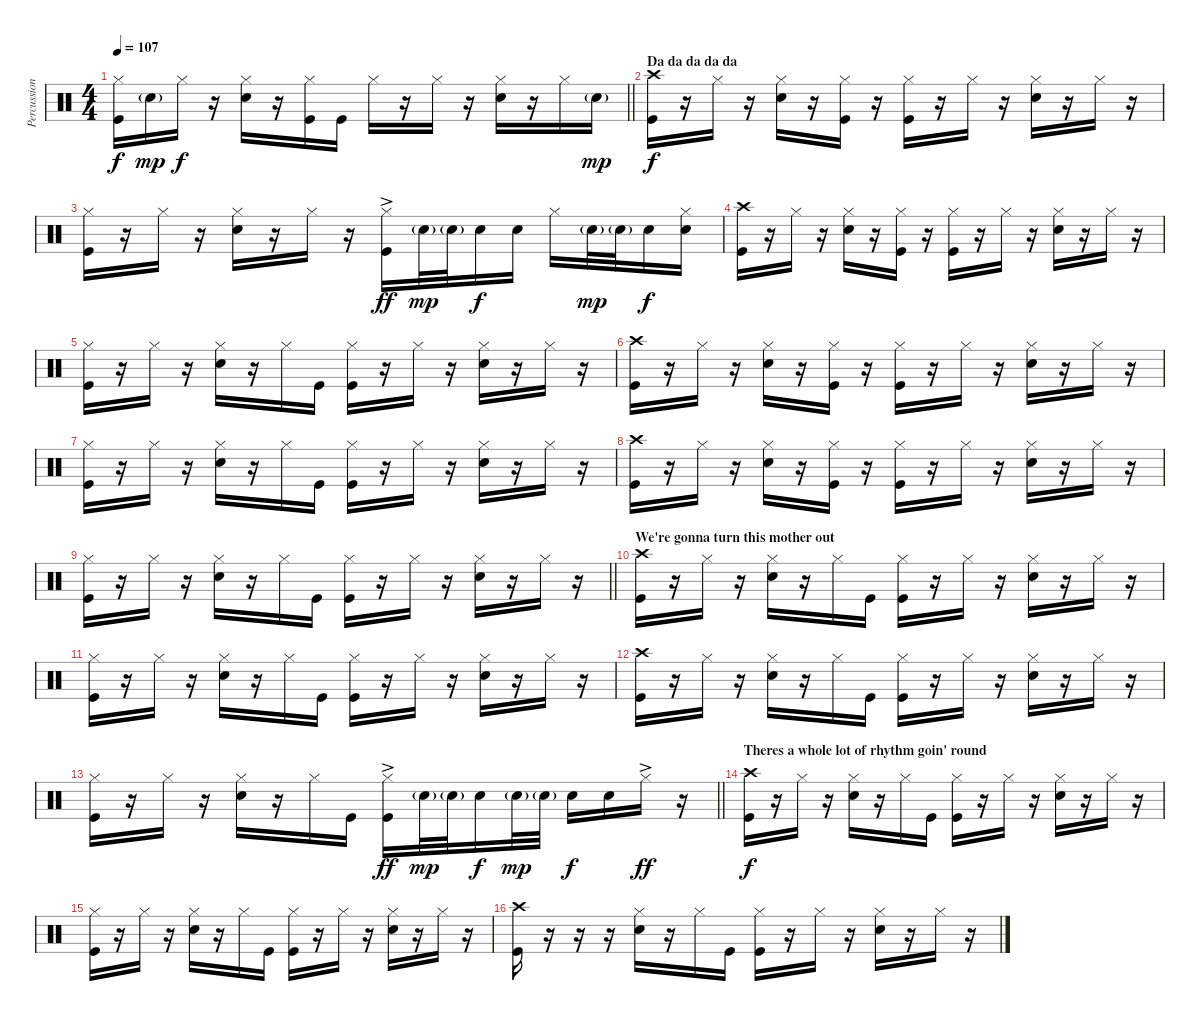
\track ("Percussion" "Percussion") {instrument percussion}
\staff {score}
\articulation defaults
\ts (4 4)
\tempo 107
\clef neutral
\barLineRight lightlight
\ks c
("Hi-Hat (closed)" "Kick (hit)").16{dy f} "Snare (hit) 2"{g}.16{dy mp} "Hi-Hat (closed)".16{dy f} r.16 ("Hi-Hat (closed)" "Snare (hit) 2").16 r.16 ("Hi-Hat (closed)" "Kick (hit)").16 "Kick (hit)".16 "Hi-Hat (closed)".16 r.16 "Hi-Hat (closed)".16 r.16 ("Hi-Hat (closed)" "Snare (hit) 2").16 r.16 "Hi-Hat (closed)".16 "Snare (hit) 2"{g}.16{dy mp} |
\section ("" "Da da da da da")
("Crash high (hit)" "Kick (hit)").16{dy f} r.16 "Hi-Hat (closed)".16 r.16 ("Hi-Hat (closed)" "Snare (hit) 2").16 r.16 ("Hi-Hat (closed)" "Kick (hit)").16 r.16 ("Hi-Hat (closed)" "Kick (hit)").16 r.16 "Hi-Hat (closed)".16 r.16 ("Hi-Hat (closed)" "Snare (hit) 2").16 r.16 "Hi-Hat (closed)".16 r.16 |
("Hi-Hat (closed)" "Kick (hit)").16 r.16 "Hi-Hat (closed)".16 r.16 ("Hi-Hat (closed)" "Snare (hit) 2").16 r.16 "Hi-Hat (closed)".16 r.16 ("Hi-Hat (closed)" "Kick (hit)"{ac}).16{dy ff} "Snare (hit) 2"{g}.32{dy mp} "Snare (hit) 2"{g}.32 "Snare (hit) 2".16{dy f} "Snare (hit) 2".16 "Hi-Hat (closed)".16 "Snare (hit) 2"{g}.32{dy mp} "Snare (hit) 2"{g}.32 "Snare (hit) 2".16{dy f} ("Hi-Hat (closed)" "Snare (hit) 2").16 |
("Crash high (hit)" "Kick (hit)").16 r.16 "Hi-Hat (closed)".16 r.16 ("Hi-Hat (closed)" "Snare (hit) 2").16 r.16 ("Hi-Hat (closed)" "Kick (hit)").16 r.16 ("Hi-Hat (closed)" "Kick (hit)").16 r.16 "Hi-Hat (closed)".16 r.16 ("Hi-Hat (closed)" "Snare (hit) 2").16 r.16 "Hi-Hat (closed)".16 r.16 |
("Hi-Hat (closed)" "Kick (hit)").16 r.16 "Hi-Hat (closed)".16 r.16 ("Hi-Hat (closed)" "Snare (hit) 2").16 r.16 "Hi-Hat (closed)".16 "Kick (hit)".16 ("Hi-Hat (closed)" "Kick (hit)").16 r.16 "Hi-Hat (closed)".16 r.16 ("Hi-Hat (closed)" "Snare (hit) 2").16 r.16 "Hi-Hat (closed)".16 r.16 |
("Crash high (hit)" "Kick (hit)").16 r.16 "Hi-Hat (closed)".16 r.16 ("Hi-Hat (closed)" "Snare (hit) 2").16 r.16 ("Hi-Hat (closed)" "Kick (hit)").16 r.16 ("Hi-Hat (closed)" "Kick (hit)").16 r.16 "Hi-Hat (closed)".16 r.16 ("Hi-Hat (closed)" "Snare (hit) 2").16 r.16 "Hi-Hat (closed)".16 r.16 |
("Hi-Hat (closed)" "Kick (hit)").16 r.16 "Hi-Hat (closed)".16 r.16 ("Hi-Hat (closed)" "Snare (hit) 2").16 r.16 "Hi-Hat (closed)".16 "Kick (hit)".16 ("Hi-Hat (closed)" "Kick (hit)").16 r.16 "Hi-Hat (closed)".16 r.16 ("Hi-Hat (closed)" "Snare (hit) 2").16 r.16 "Hi-Hat (closed)".16 r.16 |
("Crash high (hit)" "Kick (hit)").16 r.16 "Hi-Hat (closed)".16 r.16 ("Hi-Hat (closed)" "Snare (hit) 2").16 r.16 ("Hi-Hat (closed)" "Kick (hit)").16 r.16 ("Hi-Hat (closed)" "Kick (hit)").16 r.16 "Hi-Hat (closed)".16 r.16 ("Hi-Hat (closed)" "Snare (hit) 2").16 r.16 "Hi-Hat (closed)".16 r.16 |
\barLineRight lightlight
("Hi-Hat (closed)" "Kick (hit)").16 r.16 "Hi-Hat (closed)".16 r.16 ("Hi-Hat (closed)" "Snare (hit) 2").16 r.16 "Hi-Hat (closed)".16 "Kick (hit)".16 ("Hi-Hat (closed)" "Kick (hit)").16 r.16 "Hi-Hat (closed)".16 r.16 ("Hi-Hat (closed)" "Snare (hit) 2").16 r.16 "Hi-Hat (closed)".16 r.16 |
\section ("" "We're gonna turn this mother out")
("Crash high (hit)" "Kick (hit)").16 r.16 "Hi-Hat (closed)".16 r.16 ("Hi-Hat (closed)" "Snare (hit) 2").16 r.16 "Hi-Hat (closed)".16 "Kick (hit)".16 ("Hi-Hat (closed)" "Kick (hit)").16 r.16 "Hi-Hat (closed)".16 r.16 ("Hi-Hat (closed)" "Snare (hit) 2").16 r.16 "Hi-Hat (closed)".16 r.16 |
("Hi-Hat (closed)" "Kick (hit)").16 r.16 "Hi-Hat (closed)".16 r.16 ("Hi-Hat (closed)" "Snare (hit) 2").16 r.16 "Hi-Hat (closed)".16 "Kick (hit)".16 ("Hi-Hat (closed)" "Kick (hit)").16 r.16 "Hi-Hat (closed)".16 r.16 ("Hi-Hat (closed)" "Snare (hit) 2").16 r.16 "Hi-Hat (closed)".16 r.16 |
("Crash high (hit)" "Kick (hit)").16 r.16 "Hi-Hat (closed)".16 r.16 ("Hi-Hat (closed)" "Snare (hit) 2").16 r.16 "Hi-Hat (closed)".16 "Kick (hit)".16 ("Hi-Hat (closed)" "Kick (hit)").16 r.16 "Hi-Hat (closed)".16 r.16 ("Hi-Hat (closed)" "Snare (hit) 2").16 r.16 "Hi-Hat (closed)".16 r.16 |
\barLineRight lightlight
("Hi-Hat (closed)" "Kick (hit)").16 r.16 "Hi-Hat (closed)".16 r.16 ("Hi-Hat (closed)" "Snare (hit) 2").16 r.16 "Hi-Hat (closed)".16 "Kick (hit)".16 ("Hi-Hat (closed)" "Kick (hit)"{ac}).16{dy ff} "Snare (hit) 2"{g}.32{dy mp} "Snare (hit) 2"{g}.32 "Snare (hit) 2".16{dy f} "Snare (hit) 2"{g}.32{dy mp} "Snare (hit) 2"{g}.32 "Snare (hit) 2".16{dy f} "Snare (hit) 2".16 "Hi-Hat (closed)"{ac}.16{dy ff} r.16 |
\section ("" "Theres a whole lot of rhythm goin' round")
("Crash high (hit)" "Kick (hit)").16{dy f} r.16 "Hi-Hat (closed)".16 r.16 ("Hi-Hat (closed)" "Snare (hit) 2").16 r.16 "Hi-Hat (closed)".16 "Kick (hit)".16 ("Hi-Hat (closed)" "Kick (hit)").16 r.16 "Hi-Hat (closed)".16 r.16 ("Hi-Hat (closed)" "Snare (hit) 2").16 r.16 "Hi-Hat (closed)".16 r.16 |
("Hi-Hat (closed)" "Kick (hit)").16 r.16 "Hi-Hat (closed)".16 r.16 ("Hi-Hat (closed)" "Snare (hit) 2").16 r.16 "Hi-Hat (closed)".16 "Kick (hit)".16 ("Hi-Hat (closed)" "Kick (hit)").16 r.16 "Hi-Hat (closed)".16 r.16 ("Hi-Hat (closed)" "Snare (hit) 2").16 r.16 "Hi-Hat (closed)".16 r.16 |
("Crash high (hit)" "Kick (hit)").16 r.16 r.16 r.16 ("Hi-Hat (closed)" "Snare (hit) 2").16 r.16 "Hi-Hat (closed)".16 "Kick (hit)".16 ("Hi-Hat (closed)" "Kick (hit)").16 r.16 "Hi-Hat (closed)".16 r.16 ("Hi-Hat (closed)" "Snare (hit) 2").16 r.16 "Hi-Hat (closed)".16 r.16
